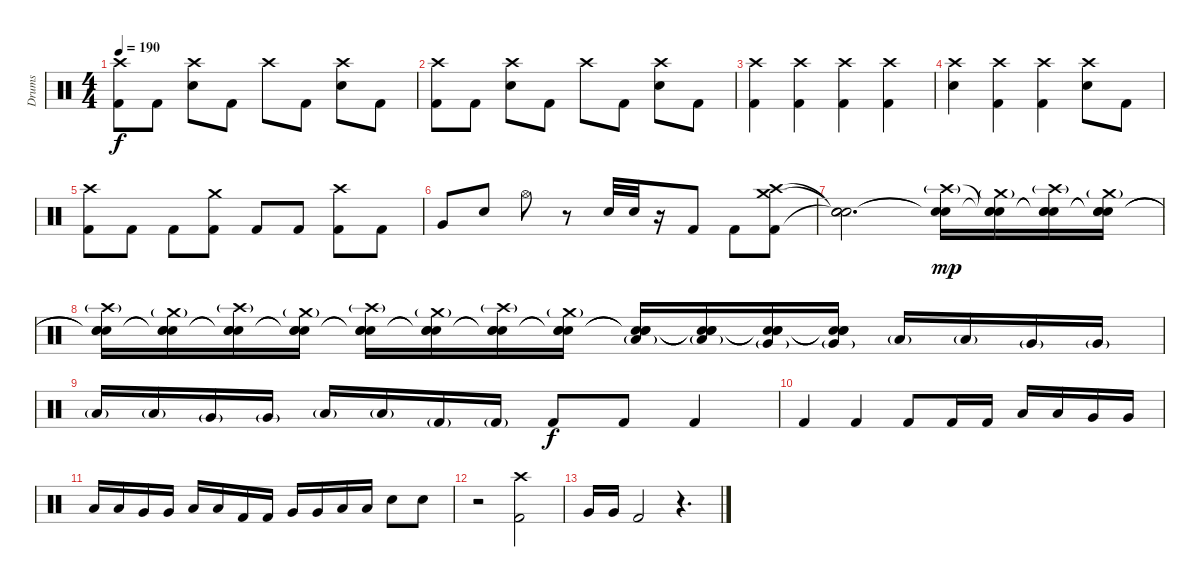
\track ("Drums" "Drums") {instrument percussion}
\staff {score}
\articulation defaults
\ts (4 4)
\tempo 190
\clef neutral
\ks c
("Crash high (hit)" "Kick (hit) 2").8{dy f} "Kick (hit) 2".8 ("Crash high (hit)" "Electric Snare (hit)").8 "Kick (hit) 2".8 "Crash high (hit)".8 "Kick (hit) 2".8 ("Crash high (hit)" "Electric Snare (hit)").8 "Kick (hit) 2".8 |
("Crash high (hit)" "Kick (hit) 2").8 "Kick (hit) 2".8 ("Crash high (hit)" "Electric Snare (hit)").8 "Kick (hit) 2".8 "Crash high (hit)".8 "Kick (hit) 2".8 ("Crash high (hit)" "Electric Snare (hit)").8 "Kick (hit) 2".8 |
("Crash high (hit)" "Kick (hit) 2").4 ("Crash high (hit)" "Kick (hit) 2").4 ("Crash high (hit)" "Kick (hit) 2").4 ("Crash high (hit)" "Kick (hit) 2").4 |
("Crash high (hit)" "Electric Snare (hit)").4 ("Crash high (hit)" "Kick (hit) 2").4 ("Crash high (hit)" "Kick (hit) 2").4 ("Crash high (hit)" "Electric Snare (hit)").8 "Kick (hit) 2".8 |
("Crash high (hit)" "Kick (hit) 2").8 "Kick (hit) 2".8 "Kick (hit) 2".8 ("Crash medium (hit)" "Kick (hit) 2").8 "Kick (hit) 2".8 "Kick (hit) 2".8 ("Crash high (hit)" "Kick (hit) 2").8 "Kick (hit) 2".8 |
"Very Low Tom (hit)".8 "Electric Snare (hit)".8 "Hi-Hat (open)".8 r.8 "Electric Snare (hit)".32 "Electric Snare (hit)".32 r.16 "Kick (hit) 2".8 "Kick (hit) 2".8 ("Crash medium (hit)" "Crash high (hit)" "Kick (hit) 2").8 |
("Snare (hit)"{t} "Snare (hit)"{t} "Snare (hit)"{t}).2{d} ("Snare (hit)"{t} "Crash high (hit)"{g} "Snare (hit)"{t}).16{dy mp} ("Snare (hit)"{t} "Snare (hit)"{t} "Crash medium (hit)"{g} "Snare (hit)").16 ("Snare (hit)"{t} "Snare (hit)"{t} "Crash high (hit)"{g} "Snare (hit)"{t}).16 ("Snare (hit)"{t} "Snare (hit)"{t} "Crash medium (hit)"{g} "Snare (hit)"{t}).16 |
("Snare (hit)"{t} "Snare (hit)"{t} "Crash high (hit)"{g} "Snare (hit)"{t}).16 ("Snare (hit)"{t} "Snare (hit)"{t} "Crash medium (hit)"{g} "Snare (hit)"{t}).16 ("Snare (hit)"{t} "Snare (hit)"{t} "Crash high (hit)"{g} "Snare (hit)"{t}).16 ("Snare (hit)"{t} "Snare (hit)"{t} "Crash medium (hit)"{g} "Snare (hit)"{t}).16 ("Snare (hit)"{t} "Snare (hit)"{t} "Crash high (hit)"{g} "Snare (hit)"{t}).16 ("Snare (hit)"{t} "Snare (hit)"{t} "Crash medium (hit)"{g} "Snare (hit)"{t}).16 ("Snare (hit)"{t} "Snare (hit)"{t} "Crash high (hit)"{g} "Snare (hit)"{t}).16 ("Snare (hit)"{t} "Snare (hit)"{t} "Crash medium (hit)"{g} "Snare (hit)"{t}).16 ("Snare (hit)"{t} "Snare (hit)"{t} "Low Tom (hit)"{g} "Snare (hit)"{t}).16 ("Snare (hit)"{t} "Snare (hit)"{t} "Low Tom (hit)"{g} "Snare (hit)"{t}).16 ("Snare (hit)"{t} "Snare (hit)"{t} "Very Low Tom (hit)"{g} "Snare (hit)"{t}).16 ("Snare (hit)"{t} "Snare (hit)"{t} "Very Low Tom (hit)"{g} "Snare (hit)"{t}).16 "Low Tom (hit)"{g}.16 "Low Tom (hit)"{g}.16 "Very Low Tom (hit)"{g}.16 "Very Low Tom (hit)"{g}.16 |
"Low Tom (hit)"{g}.16 "Low Tom (hit)"{g}.16 "Very Low Tom (hit)"{g}.16 "Very Low Tom (hit)"{g}.16 "Low Floor Tom (hit)"{g}.16 "Low Floor Tom (hit)"{g}.16 "Kick (hit) 2"{g}.16 "Kick (hit) 2"{g}.16 "Kick (hit) 2".8{dy f} "Kick (hit) 2".8 "Kick (hit) 2".4 |
"Kick (hit) 2".4 "Kick (hit) 2".4 "Kick (hit) 2".8 "Kick (hit) 2".16 "Kick (hit) 2".16 "Low Tom (hit)".16 "Low Tom (hit)".16 "Very Low Tom (hit)".16 "Very Low Tom (hit)".16 |
"Low Tom (hit)".16 "Low Tom (hit)".16 "Very Low Tom (hit)".16 "Very Low Tom (hit)".16 "Low Floor Tom (hit)".16 "Low Floor Tom (hit)".16 "Kick (hit) 2".16 "Kick (hit) 2".16 "Very Low Tom (hit)".16 "Very Low Tom (hit)".16 "Low Floor Tom (hit)".16 "Low Floor Tom (hit)".16 "Electric Snare (hit)".8 "Electric Snare (hit)".8 |
r.2 ("Crash high (hit)" "Kick (hit) 2").2 |
"Very Low Tom (hit)".16 "Very Low Tom (hit)".16 "Kick (hit) 2".2 r.4{d}
